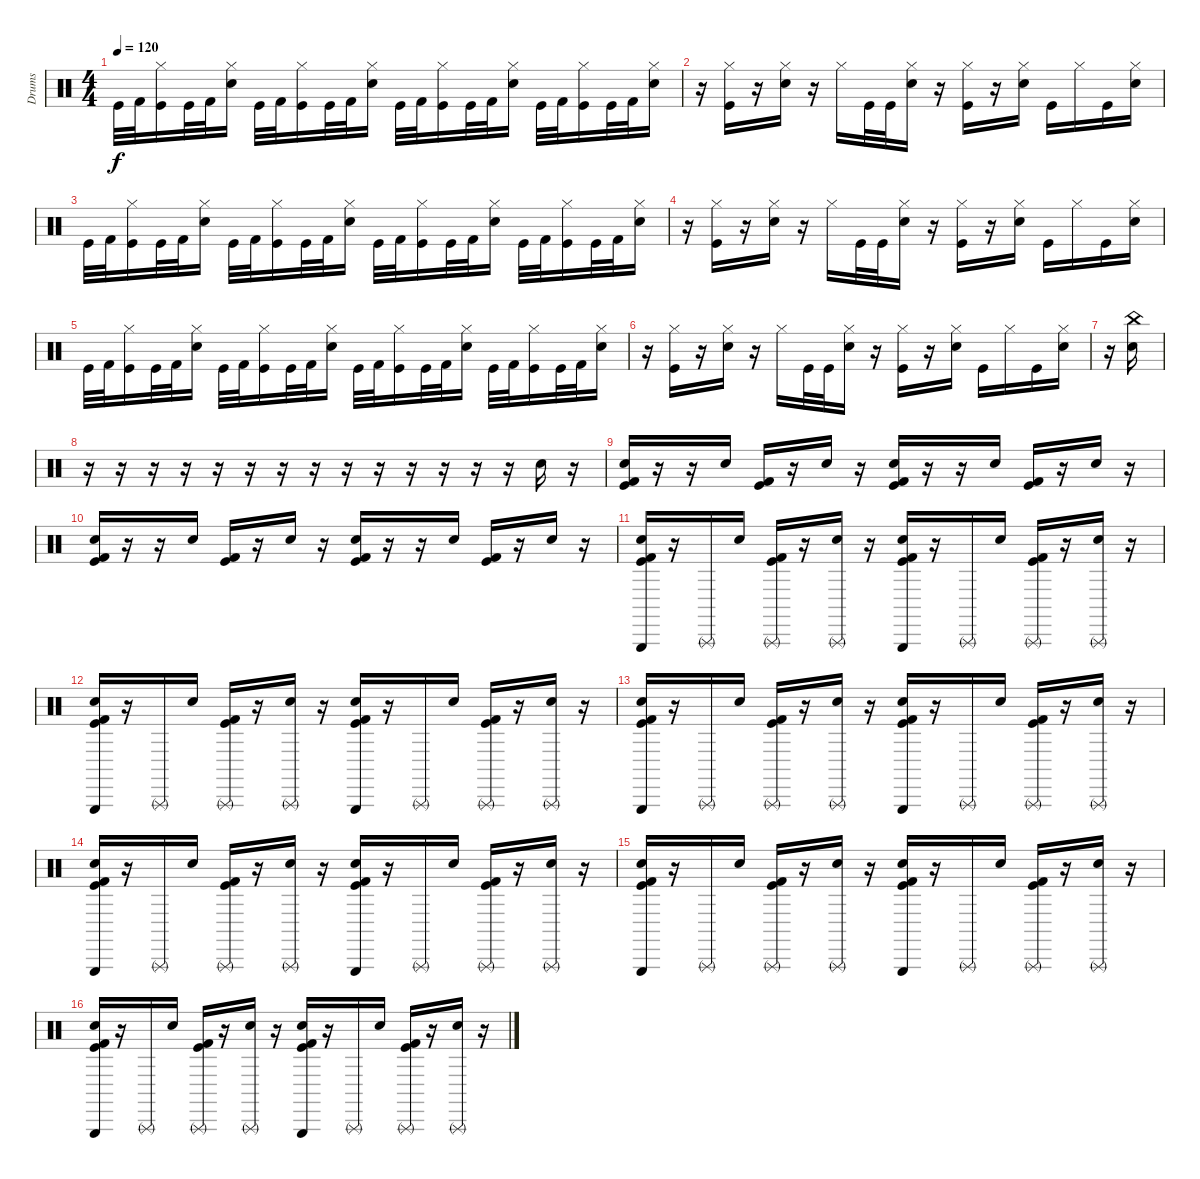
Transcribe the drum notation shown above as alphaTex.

\track ("Drums" "Drums") {instrument percussion}
\staff {score}
\articulation defaults
\ts (4 4)
\tempo 120
\clef neutral
\ks c "Kick (hit)".32{dy f} "Kick (hit) 2".32
("Hi-Hat (closed)" "Kick (hit)").16 "Kick (hit)".32 "Kick (hit) 2".32 ("Hi-Hat (closed)" "Snare (hit) 2").16 "Kick (hit)".32 "Kick (hit) 2".32 ("Hi-Hat (closed)" "Kick (hit)").16 "Kick (hit)".32 "Kick (hit) 2".32 ("Hi-Hat (closed)" "Snare (hit) 2").16 "Kick (hit)".32 "Kick (hit) 2".32 ("Hi-Hat (closed)" "Kick (hit)").16 "Kick (hit)".32 "Kick (hit) 2".32 ("Hi-Hat (closed)" "Snare (hit) 2").16 "Kick (hit)".32 "Kick (hit) 2".32 ("Hi-Hat (closed)" "Kick (hit)").16 "Kick (hit)".32 "Kick (hit) 2".32 ("Hi-Hat (closed)" "Snare (hit) 2").16 |
r.16 ("Hi-Hat (closed)" "Kick (hit)").16 r.16 ("Hi-Hat (closed)" "Snare (hit) 2").16 r.16 "Hi-Hat (closed)".16 "Kick (hit)".32 "Kick (hit)".32 ("Hi-Hat (closed)" "Snare (hit) 2").16 r.16 ("Hi-Hat (closed)" "Kick (hit)").16 r.16 ("Hi-Hat (closed)" "Snare (hit) 2").16 "Kick (hit)".16 "Hi-Hat (closed)".16 "Kick (hit)".16 ("Hi-Hat (closed)" "Snare (hit) 2").16 |
"Kick (hit)".32 "Kick (hit) 2".32 ("Hi-Hat (closed)" "Kick (hit)").16 "Kick (hit)".32 "Kick (hit) 2".32 ("Hi-Hat (closed)" "Snare (hit) 2").16 "Kick (hit)".32 "Kick (hit) 2".32 ("Hi-Hat (closed)" "Kick (hit)").16 "Kick (hit)".32 "Kick (hit) 2".32 ("Hi-Hat (closed)" "Snare (hit) 2").16 "Kick (hit)".32 "Kick (hit) 2".32 ("Hi-Hat (closed)" "Kick (hit)").16 "Kick (hit)".32 "Kick (hit) 2".32 ("Hi-Hat (closed)" "Snare (hit) 2").16 "Kick (hit)".32 "Kick (hit) 2".32 ("Hi-Hat (closed)" "Kick (hit)").16 "Kick (hit)".32 "Kick (hit) 2".32 ("Hi-Hat (closed)" "Snare (hit) 2").16 |
r.16 ("Hi-Hat (closed)" "Kick (hit)").16 r.16 ("Hi-Hat (closed)" "Snare (hit) 2").16 r.16 "Hi-Hat (closed)".16 "Kick (hit)".32 "Kick (hit)".32 ("Hi-Hat (closed)" "Snare (hit) 2").16 r.16 ("Hi-Hat (closed)" "Kick (hit)").16 r.16 ("Hi-Hat (closed)" "Snare (hit) 2").16 "Kick (hit)".16 "Hi-Hat (closed)".16 "Kick (hit)".16 ("Hi-Hat (closed)" "Snare (hit) 2").16 |
"Kick (hit)".32 "Kick (hit) 2".32 ("Hi-Hat (closed)" "Kick (hit)").16 "Kick (hit)".32 "Kick (hit) 2".32 ("Hi-Hat (closed)" "Snare (hit) 2").16 "Kick (hit)".32 "Kick (hit) 2".32 ("Hi-Hat (closed)" "Kick (hit)").16 "Kick (hit)".32 "Kick (hit) 2".32 ("Hi-Hat (closed)" "Snare (hit) 2").16 "Kick (hit)".32 "Kick (hit) 2".32 ("Hi-Hat (closed)" "Kick (hit)").16 "Kick (hit)".32 "Kick (hit) 2".32 ("Hi-Hat (closed)" "Snare (hit) 2").16 "Kick (hit)".32 "Kick (hit) 2".32 ("Hi-Hat (closed)" "Kick (hit)").16 "Kick (hit)".32 "Kick (hit) 2".32 ("Hi-Hat (closed)" "Snare (hit) 2").16 |
r.16 ("Hi-Hat (closed)" "Kick (hit)").16 r.16 ("Hi-Hat (closed)" "Snare (hit) 2").16 r.16 "Hi-Hat (closed)".16 "Kick (hit)".32 "Kick (hit)".32 ("Hi-Hat (closed)" "Snare (hit) 2").16 r.16 ("Hi-Hat (closed)" "Kick (hit)").16 r.16 ("Hi-Hat (closed)" "Snare (hit) 2").16 "Kick (hit)".16 "Hi-Hat (closed)".16 "Kick (hit)".16 ("Hi-Hat (closed)" "Snare (hit) 2").16 |
r.16 ("China (hit)" "Snare (hit) 2").16 |
r.16 r.16 r.16 r.16 r.16 r.16 r.16 r.16 r.16 r.16 r.16 r.16 r.16 r.16 "Electric Snare (hit)".16 r.16 |
("Electric Snare (hit)" "Kick (hit) 2" "Kick (hit)").16 r.16 r.16 "Electric Snare (hit)".16 ("Kick (hit) 2" "Kick (hit)").16 r.16 "Electric Snare (hit)".16 r.16 ("Electric Snare (hit)" "Kick (hit) 2" "Kick (hit)").16 r.16 r.16 "Electric Snare (hit)".16 ("Kick (hit) 2" "Kick (hit)").16 r.16 "Electric Snare (hit)".16 r.16 |
("Electric Snare (hit)" "Kick (hit) 2" "Kick (hit)").16 r.16 r.16 "Electric Snare (hit)".16 ("Kick (hit) 2" "Kick (hit)").16 r.16 "Electric Snare (hit)".16 r.16 ("Electric Snare (hit)" "Kick (hit) 2" "Kick (hit)").16 r.16 r.16 "Electric Snare (hit)".16 ("Kick (hit) 2" "Kick (hit)").16 r.16 "Electric Snare (hit)".16 r.16 |
("Triangle (hit)" "Electric Snare (hit)" "Kick (hit) 2" "Kick (hit)").16 r.16 "Triangle (rnute)".16 "Electric Snare (hit)".16 ("Triangle (rnute)" "Kick (hit) 2" "Kick (hit)").16 r.16 ("Triangle (rnute)" "Electric Snare (hit)").16 r.16 ("Triangle (hit)" "Electric Snare (hit)" "Kick (hit) 2" "Kick (hit)").16 r.16 "Triangle (rnute)".16 "Electric Snare (hit)".16 ("Triangle (rnute)" "Kick (hit) 2" "Kick (hit)").16 r.16 ("Triangle (rnute)" "Electric Snare (hit)").16 r.16 |
("Triangle (hit)" "Electric Snare (hit)" "Kick (hit) 2" "Kick (hit)").16 r.16 "Triangle (rnute)".16 "Electric Snare (hit)".16 ("Triangle (rnute)" "Kick (hit) 2" "Kick (hit)").16 r.16 ("Triangle (rnute)" "Electric Snare (hit)").16 r.16 ("Triangle (hit)" "Electric Snare (hit)" "Kick (hit) 2" "Kick (hit)").16 r.16 "Triangle (rnute)".16 "Electric Snare (hit)".16 ("Triangle (rnute)" "Kick (hit) 2" "Kick (hit)").16 r.16 ("Triangle (rnute)" "Electric Snare (hit)").16 r.16 |
("Triangle (hit)" "Electric Snare (hit)" "Kick (hit) 2" "Kick (hit)").16 r.16 "Triangle (rnute)".16 "Electric Snare (hit)".16 ("Triangle (rnute)" "Kick (hit) 2" "Kick (hit)").16 r.16 ("Triangle (rnute)" "Electric Snare (hit)").16 r.16 ("Triangle (hit)" "Electric Snare (hit)" "Kick (hit) 2" "Kick (hit)").16 r.16 "Triangle (rnute)".16 "Electric Snare (hit)".16 ("Triangle (rnute)" "Kick (hit) 2" "Kick (hit)").16 r.16 ("Triangle (rnute)" "Electric Snare (hit)").16 r.16 |
("Triangle (hit)" "Electric Snare (hit)" "Kick (hit) 2" "Kick (hit)").16 r.16 "Triangle (rnute)".16 "Electric Snare (hit)".16 ("Triangle (rnute)" "Kick (hit) 2" "Kick (hit)").16 r.16 ("Triangle (rnute)" "Electric Snare (hit)").16 r.16 ("Triangle (hit)" "Electric Snare (hit)" "Kick (hit) 2" "Kick (hit)").16 r.16 "Triangle (rnute)".16 "Electric Snare (hit)".16 ("Triangle (rnute)" "Kick (hit) 2" "Kick (hit)").16 r.16 ("Triangle (rnute)" "Electric Snare (hit)").16 r.16 |
("Triangle (hit)" "Electric Snare (hit)" "Kick (hit) 2" "Kick (hit)").16 r.16 "Triangle (rnute)".16 "Electric Snare (hit)".16 ("Triangle (rnute)" "Kick (hit) 2" "Kick (hit)").16 r.16 ("Triangle (rnute)" "Electric Snare (hit)").16 r.16 ("Triangle (hit)" "Electric Snare (hit)" "Kick (hit) 2" "Kick (hit)").16 r.16 "Triangle (rnute)".16 "Electric Snare (hit)".16 ("Triangle (rnute)" "Kick (hit) 2" "Kick (hit)").16 r.16 ("Triangle (rnute)" "Electric Snare (hit)").16 r.16 |
("Triangle (hit)" "Electric Snare (hit)" "Kick (hit) 2" "Kick (hit)").16 r.16 "Triangle (rnute)".16 "Electric Snare (hit)".16 ("Triangle (rnute)" "Kick (hit) 2" "Kick (hit)").16 r.16 ("Triangle (rnute)" "Electric Snare (hit)").16 r.16 ("Triangle (hit)" "Electric Snare (hit)" "Kick (hit) 2" "Kick (hit)").16 r.16 "Triangle (rnute)".16 "Electric Snare (hit)".16 ("Triangle (rnute)" "Kick (hit) 2" "Kick (hit)").16 r.16 ("Triangle (rnute)" "Electric Snare (hit)").16 r.16
